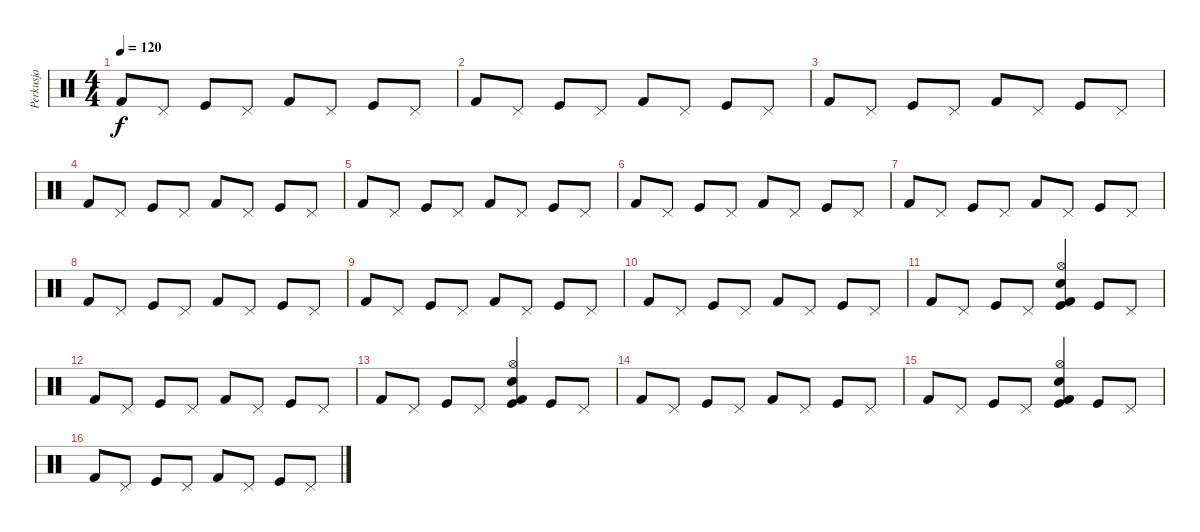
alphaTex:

\track ("Perkusja" "Perkusja") {instrument percussion}
\staff {score}
\articulation defaults
\ts (4 4)
\tempo 120
\clef neutral
\ks c "Kick (hit) 2".8{dy f} "Pedal Hi-Hat (hit)".8 "Kick (hit)".8 "Pedal Hi-Hat (hit)".8 "Kick (hit) 2".8 "Pedal Hi-Hat (hit)".8 "Kick (hit)".8 "Pedal Hi-Hat (hit)".8
|
"Kick (hit) 2".8 "Pedal Hi-Hat (hit)".8 "Kick (hit)".8 "Pedal Hi-Hat (hit)".8 "Kick (hit) 2".8 "Pedal Hi-Hat (hit)".8 "Kick (hit)".8 "Pedal Hi-Hat (hit)".8 |
"Kick (hit) 2".8 "Pedal Hi-Hat (hit)".8 "Kick (hit)".8 "Pedal Hi-Hat (hit)".8 "Kick (hit) 2".8 "Pedal Hi-Hat (hit)".8 "Kick (hit)".8 "Pedal Hi-Hat (hit)".8 |
"Kick (hit) 2".8 "Pedal Hi-Hat (hit)".8 "Kick (hit)".8 "Pedal Hi-Hat (hit)".8 "Kick (hit) 2".8 "Pedal Hi-Hat (hit)".8 "Kick (hit)".8 "Pedal Hi-Hat (hit)".8 |
"Kick (hit) 2".8 "Pedal Hi-Hat (hit)".8 "Kick (hit)".8 "Pedal Hi-Hat (hit)".8 "Kick (hit) 2".8 "Pedal Hi-Hat (hit)".8 "Kick (hit)".8 "Pedal Hi-Hat (hit)".8 |
"Kick (hit) 2".8 "Pedal Hi-Hat (hit)".8 "Kick (hit)".8 "Pedal Hi-Hat (hit)".8 "Kick (hit) 2".8 "Pedal Hi-Hat (hit)".8 "Kick (hit)".8 "Pedal Hi-Hat (hit)".8 |
"Kick (hit) 2".8 "Pedal Hi-Hat (hit)".8 "Kick (hit)".8 "Pedal Hi-Hat (hit)".8 "Kick (hit) 2".8 "Pedal Hi-Hat (hit)".8 "Kick (hit)".8 "Pedal Hi-Hat (hit)".8 |
"Kick (hit) 2".8 "Pedal Hi-Hat (hit)".8 "Kick (hit)".8 "Pedal Hi-Hat (hit)".8 "Kick (hit) 2".8 "Pedal Hi-Hat (hit)".8 "Kick (hit)".8 "Pedal Hi-Hat (hit)".8 |
"Kick (hit) 2".8 "Pedal Hi-Hat (hit)".8 "Kick (hit)".8 "Pedal Hi-Hat (hit)".8 "Kick (hit) 2".8 "Pedal Hi-Hat (hit)".8 "Kick (hit)".8 "Pedal Hi-Hat (hit)".8 |
"Kick (hit) 2".8 "Pedal Hi-Hat (hit)".8 "Kick (hit)".8 "Pedal Hi-Hat (hit)".8 "Kick (hit) 2".8 "Pedal Hi-Hat (hit)".8 "Kick (hit)".8 "Pedal Hi-Hat (hit)".8 |
"Kick (hit) 2".8 "Pedal Hi-Hat (hit)".8 "Kick (hit)".8 "Pedal Hi-Hat (hit)".8 ("Hi-Hat (open)" "Snare (hit) 2" "Kick (hit)" "Kick (hit) 2").4 "Kick (hit)".8 "Pedal Hi-Hat (hit)".8 |
"Kick (hit) 2".8 "Pedal Hi-Hat (hit)".8 "Kick (hit)".8 "Pedal Hi-Hat (hit)".8 "Kick (hit) 2".8 "Pedal Hi-Hat (hit)".8 "Kick (hit)".8 "Pedal Hi-Hat (hit)".8 |
"Kick (hit) 2".8 "Pedal Hi-Hat (hit)".8 "Kick (hit)".8 "Pedal Hi-Hat (hit)".8 ("Hi-Hat (open)" "Snare (hit) 2" "Kick (hit)" "Kick (hit) 2").4 "Kick (hit)".8 "Pedal Hi-Hat (hit)".8 |
"Kick (hit) 2".8 "Pedal Hi-Hat (hit)".8 "Kick (hit)".8 "Pedal Hi-Hat (hit)".8 "Kick (hit) 2".8 "Pedal Hi-Hat (hit)".8 "Kick (hit)".8 "Pedal Hi-Hat (hit)".8 |
"Kick (hit) 2".8 "Pedal Hi-Hat (hit)".8 "Kick (hit)".8 "Pedal Hi-Hat (hit)".8 ("Hi-Hat (open)" "Snare (hit) 2" "Kick (hit)" "Kick (hit) 2").4 "Kick (hit)".8 "Pedal Hi-Hat (hit)".8 |
"Kick (hit) 2".8 "Pedal Hi-Hat (hit)".8 "Kick (hit)".8 "Pedal Hi-Hat (hit)".8 "Kick (hit) 2".8 "Pedal Hi-Hat (hit)".8 "Kick (hit)".8 "Pedal Hi-Hat (hit)".8
